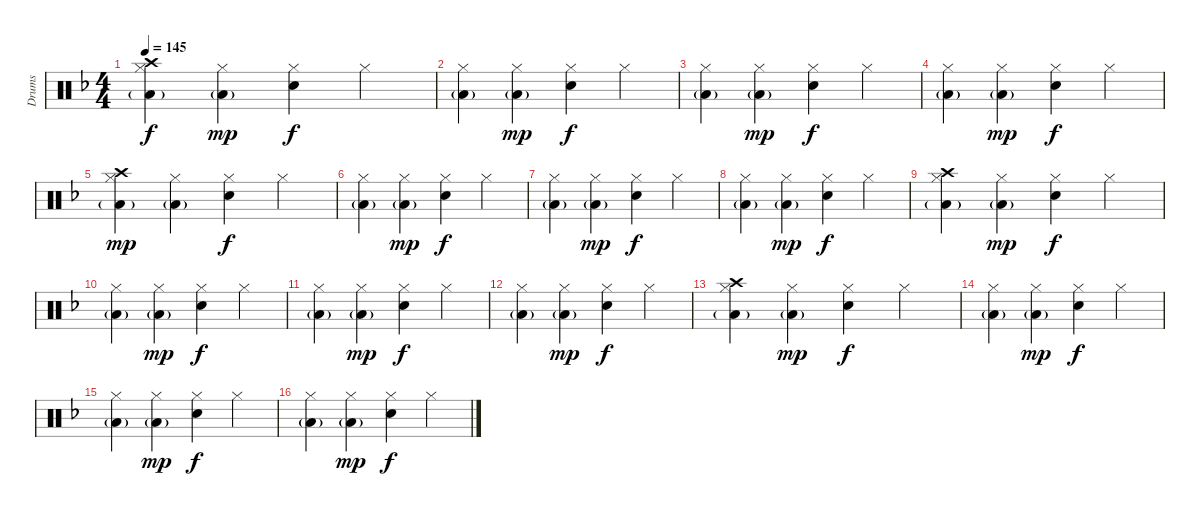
\track ("Drums" "Drums") {instrument percussion}
\staff {score}
\articulation defaults
\ts (4 4)
\tempo 145
\clef neutral
\ks f
("Hi-Hat (closed)" "Low Tom (hit)"{g} "Crash high (hit)").4{dy f} ("Hi-Hat (closed)" "Low Tom (hit)"{g}).4{dy mp} ("Hi-Hat (closed)" "Snare (hit) 2").4{dy f} "Hi-Hat (closed)".4 |
("Hi-Hat (closed)" "Low Tom (hit)"{g}).4 ("Hi-Hat (closed)" "Low Tom (hit)"{g}).4{dy mp} ("Hi-Hat (closed)" "Snare (hit) 2").4{dy f} "Hi-Hat (closed)".4 |
("Hi-Hat (closed)" "Low Tom (hit)"{g}).4 ("Hi-Hat (closed)" "Low Tom (hit)"{g}).4{dy mp} ("Hi-Hat (closed)" "Snare (hit) 2").4{dy f} "Hi-Hat (closed)".4 |
("Hi-Hat (closed)" "Low Tom (hit)"{g}).4 ("Hi-Hat (closed)" "Low Tom (hit)"{g}).4{dy mp} ("Hi-Hat (closed)" "Snare (hit) 2").4{dy f} "Hi-Hat (closed)".4 |
("Hi-Hat (closed)" "Crash high (hit)" "Low Tom (hit)"{g}).4{dy mp} ("Hi-Hat (closed)" "Low Tom (hit)"{g}).4 ("Hi-Hat (closed)" "Snare (hit) 2").4{dy f} "Hi-Hat (closed)".4 |
("Hi-Hat (closed)" "Low Tom (hit)"{g}).4 ("Hi-Hat (closed)" "Low Tom (hit)"{g}).4{dy mp} ("Hi-Hat (closed)" "Snare (hit) 2").4{dy f} "Hi-Hat (closed)".4 |
("Hi-Hat (closed)" "Low Tom (hit)"{g}).4 ("Hi-Hat (closed)" "Low Tom (hit)"{g}).4{dy mp} ("Hi-Hat (closed)" "Snare (hit) 2").4{dy f} "Hi-Hat (closed)".4 |
("Hi-Hat (closed)" "Low Tom (hit)"{g}).4 ("Hi-Hat (closed)" "Low Tom (hit)"{g}).4{dy mp} ("Hi-Hat (closed)" "Snare (hit) 2").4{dy f} "Hi-Hat (closed)".4 |
("Hi-Hat (closed)" "Low Tom (hit)"{g} "Crash high (hit)").4 ("Hi-Hat (closed)" "Low Tom (hit)"{g}).4{dy mp} ("Hi-Hat (closed)" "Snare (hit) 2").4{dy f} "Hi-Hat (closed)".4 |
("Hi-Hat (closed)" "Low Tom (hit)"{g}).4 ("Hi-Hat (closed)" "Low Tom (hit)"{g}).4{dy mp} ("Hi-Hat (closed)" "Snare (hit) 2").4{dy f} "Hi-Hat (closed)".4 |
("Hi-Hat (closed)" "Low Tom (hit)"{g}).4 ("Hi-Hat (closed)" "Low Tom (hit)"{g}).4{dy mp} ("Hi-Hat (closed)" "Snare (hit) 2").4{dy f} "Hi-Hat (closed)".4 |
("Hi-Hat (closed)" "Low Tom (hit)"{g}).4 ("Hi-Hat (closed)" "Low Tom (hit)"{g}).4{dy mp} ("Hi-Hat (closed)" "Snare (hit) 2").4{dy f} "Hi-Hat (closed)".4 |
("Hi-Hat (closed)" "Low Tom (hit)"{g} "Crash high (hit)").4 ("Hi-Hat (closed)" "Low Tom (hit)"{g}).4{dy mp} ("Hi-Hat (closed)" "Snare (hit) 2").4{dy f} "Hi-Hat (closed)".4 |
("Hi-Hat (closed)" "Low Tom (hit)"{g}).4 ("Hi-Hat (closed)" "Low Tom (hit)"{g}).4{dy mp} ("Hi-Hat (closed)" "Snare (hit) 2").4{dy f} "Hi-Hat (closed)".4 |
("Hi-Hat (closed)" "Low Tom (hit)"{g}).4 ("Hi-Hat (closed)" "Low Tom (hit)"{g}).4{dy mp} ("Hi-Hat (closed)" "Snare (hit) 2").4{dy f} "Hi-Hat (closed)".4 |
("Hi-Hat (closed)" "Low Tom (hit)"{g}).4 ("Hi-Hat (closed)" "Low Tom (hit)"{g}).4{dy mp} ("Hi-Hat (closed)" "Snare (hit) 2").4{dy f} "Hi-Hat (closed)".4
